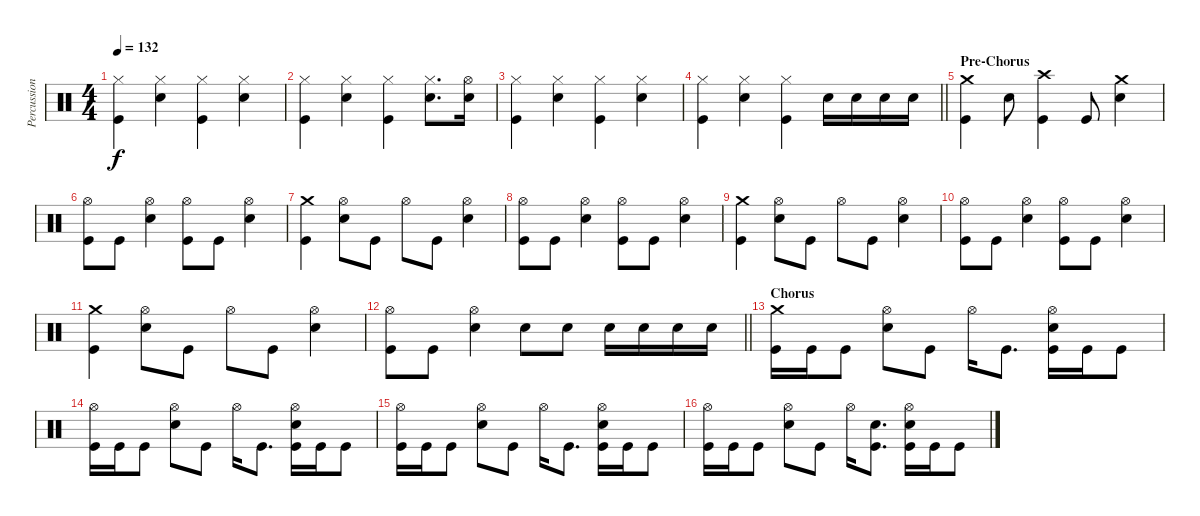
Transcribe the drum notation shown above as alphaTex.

\track ("Percussion" "Percussion") {instrument percussion}
\staff {score}
\articulation defaults
\ts (4 4)
\tempo 132
\clef neutral
\ks c
("Hi-Hat (closed)" "Kick (hit)").4{dy f} ("Hi-Hat (closed)" "Electric Snare (hit)").4 ("Hi-Hat (closed)" "Kick (hit)").4 ("Hi-Hat (closed)" "Electric Snare (hit)").4 |
("Hi-Hat (closed)" "Kick (hit)").4 ("Hi-Hat (closed)" "Electric Snare (hit)").4 ("Hi-Hat (closed)" "Kick (hit)").4 ("Hi-Hat (closed)" "Electric Snare (hit)").8{d} ("Hi-Hat (open)" "Electric Snare (hit)").16 |
("Hi-Hat (closed)" "Kick (hit)").4 ("Hi-Hat (closed)" "Electric Snare (hit)").4 ("Hi-Hat (closed)" "Kick (hit)").4 ("Hi-Hat (closed)" "Electric Snare (hit)").4 |
\barLineRight lightlight
("Hi-Hat (closed)" "Kick (hit)").4 ("Hi-Hat (closed)" "Electric Snare (hit)").4 ("Hi-Hat (closed)" "Kick (hit)").4 "Electric Snare (hit)".16 "Electric Snare (hit)".16 "Electric Snare (hit)".16 "Electric Snare (hit)".16 |
\section ("" "Pre-Chorus")
("Crash medium (hit)" "Kick (hit)").4 "Electric Snare (hit)".8 ("Crash high (hit)" "Kick (hit)").4 "Kick (hit)".8 ("Crash medium (hit)" "Electric Snare (hit)").4 |
("Hi-Hat (open)" "Kick (hit)").8 "Kick (hit)".8 ("Hi-Hat (open)" "Electric Snare (hit)").4 ("Hi-Hat (open)" "Kick (hit)").8 "Kick (hit)".8 ("Hi-Hat (open)" "Electric Snare (hit)").4 |
("Crash medium (hit)" "Kick (hit)").4 ("Hi-Hat (open)" "Electric Snare (hit)").8 "Kick (hit)".8 "Hi-Hat (open)".8 "Kick (hit)".8 ("Hi-Hat (open)" "Electric Snare (hit)").4 |
("Hi-Hat (open)" "Kick (hit)").8 "Kick (hit)".8 ("Hi-Hat (open)" "Electric Snare (hit)").4 ("Hi-Hat (open)" "Kick (hit)").8 "Kick (hit)".8 ("Hi-Hat (open)" "Electric Snare (hit)").4 |
("Crash medium (hit)" "Kick (hit)").4 ("Hi-Hat (open)" "Electric Snare (hit)").8 "Kick (hit)".8 "Hi-Hat (open)".8 "Kick (hit)".8 ("Hi-Hat (open)" "Electric Snare (hit)").4 |
("Hi-Hat (open)" "Kick (hit)").8 "Kick (hit)".8 ("Hi-Hat (open)" "Electric Snare (hit)").4 ("Hi-Hat (open)" "Kick (hit)").8 "Kick (hit)".8 ("Hi-Hat (open)" "Electric Snare (hit)").4 |
("Crash medium (hit)" "Kick (hit)").4 ("Hi-Hat (open)" "Electric Snare (hit)").8 "Kick (hit)".8 "Hi-Hat (open)".8 "Kick (hit)".8 ("Hi-Hat (open)" "Electric Snare (hit)").4 |
\barLineRight lightlight
("Hi-Hat (open)" "Kick (hit)").8 "Kick (hit)".8 ("Hi-Hat (open)" "Electric Snare (hit)").4 "Electric Snare (hit)".8 "Electric Snare (hit)".8 "Electric Snare (hit)".16 "Electric Snare (hit)".16 "Electric Snare (hit)".16 "Electric Snare (hit)".16 |
\section ("" "Chorus")
("Crash medium (hit)" "Kick (hit)").16 "Kick (hit)".16 "Kick (hit)".8 ("Hi-Hat (open)" "Electric Snare (hit)").8 "Kick (hit)".8 "Hi-Hat (open)".16 "Kick (hit)".8{d} ("Hi-Hat (open)" "Electric Snare (hit)" "Kick (hit)").16 "Kick (hit)".16 "Kick (hit)".8 |
("Hi-Hat (open)" "Kick (hit)").16 "Kick (hit)".16 "Kick (hit)".8 ("Hi-Hat (open)" "Electric Snare (hit)").8 "Kick (hit)".8 "Hi-Hat (open)".16 "Kick (hit)".8{d} ("Hi-Hat (open)" "Electric Snare (hit)" "Kick (hit)").16 "Kick (hit)".16 "Kick (hit)".8 |
("Hi-Hat (open)" "Kick (hit)").16 "Kick (hit)".16 "Kick (hit)".8 ("Hi-Hat (open)" "Electric Snare (hit)").8 "Kick (hit)".8 "Hi-Hat (open)".16 "Kick (hit)".8{d} ("Hi-Hat (open)" "Electric Snare (hit)" "Kick (hit)").16 "Kick (hit)".16 "Kick (hit)".8 |
("Hi-Hat (open)" "Kick (hit)").16 "Kick (hit)".16 "Kick (hit)".8 ("Hi-Hat (open)" "Electric Snare (hit)").8 "Kick (hit)".8 "Hi-Hat (open)".16 ("Electric Snare (hit)" "Kick (hit)").8{d} ("Hi-Hat (open)" "Electric Snare (hit)" "Kick (hit)").16 "Kick (hit)".16 "Kick (hit)".8
